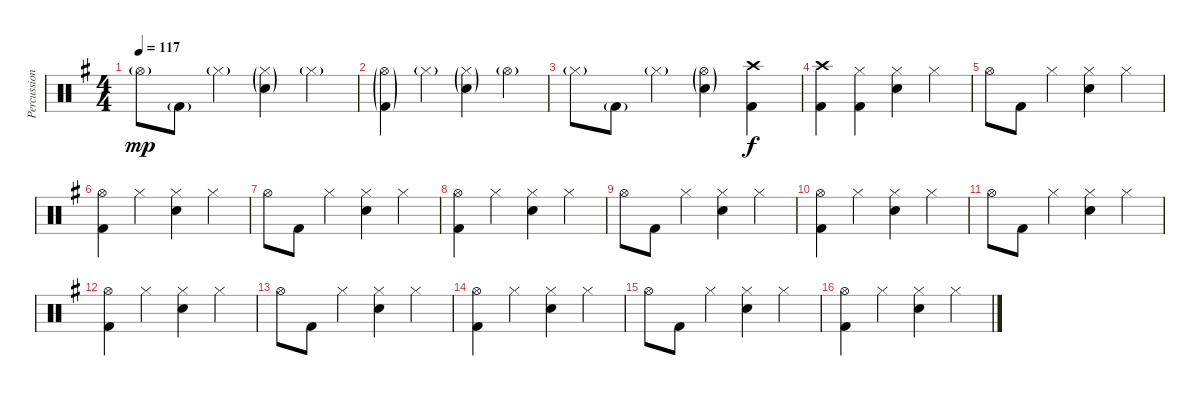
\track ("Percussion" "Percussion") {instrument percussion}
\staff {score}
\articulation defaults
\ts (4 4)
\tempo 117
\clef neutral
\ks g "Hi-Hat (open)"{g}.8{dy mp} "Kick (hit) 2"{g}.8 "Hi-Hat (closed)"{g}.4
("Hi-Hat (closed)"{g} "Electric Snare (hit)"{g}).4 "Hi-Hat (closed)"{g}.4 |
("Hi-Hat (open)"{g} "Kick (hit) 2"{g}).4 "Hi-Hat (closed)"{g}.4 ("Hi-Hat (closed)"{g} "Electric Snare (hit)"{g}).4 "Hi-Hat (open)"{g}.4 |
"Hi-Hat (closed)"{g}.8 "Kick (hit) 2"{g}.8 "Hi-Hat (closed)"{g}.4 ("Hi-Hat (open)"{g} "Electric Snare (hit)"{g}).4 ("Crash high (hit)" "Kick (hit) 2").4{dy f} |
("Crash high (hit)" "Kick (hit) 2").4 ("Hi-Hat (closed)" "Kick (hit) 2").4 ("Hi-Hat (closed)" "Electric Snare (hit)").4 "Hi-Hat (closed)".4 |
"Hi-Hat (open)".8 "Kick (hit) 2".8 "Hi-Hat (closed)".4 ("Hi-Hat (closed)" "Electric Snare (hit)").4 "Hi-Hat (closed)".4 |
("Hi-Hat (open)" "Kick (hit) 2").4 "Hi-Hat (closed)".4 ("Hi-Hat (closed)" "Electric Snare (hit)").4 "Hi-Hat (closed)".4 |
"Hi-Hat (open)".8 "Kick (hit) 2".8 "Hi-Hat (closed)".4 ("Hi-Hat (closed)" "Electric Snare (hit)").4 "Hi-Hat (closed)".4 |
("Hi-Hat (open)" "Kick (hit) 2").4 "Hi-Hat (closed)".4 ("Hi-Hat (closed)" "Electric Snare (hit)").4 "Hi-Hat (closed)".4 |
"Hi-Hat (open)".8 "Kick (hit) 2".8 "Hi-Hat (closed)".4 ("Hi-Hat (closed)" "Electric Snare (hit)").4 "Hi-Hat (closed)".4 |
("Hi-Hat (open)" "Kick (hit) 2").4 "Hi-Hat (closed)".4 ("Hi-Hat (closed)" "Electric Snare (hit)").4 "Hi-Hat (closed)".4 |
"Hi-Hat (open)".8 "Kick (hit) 2".8 "Hi-Hat (closed)".4 ("Hi-Hat (closed)" "Electric Snare (hit)").4 "Hi-Hat (closed)".4 |
("Hi-Hat (open)" "Kick (hit) 2").4 "Hi-Hat (closed)".4 ("Hi-Hat (closed)" "Electric Snare (hit)").4 "Hi-Hat (closed)".4 |
"Hi-Hat (open)".8 "Kick (hit) 2".8 "Hi-Hat (closed)".4 ("Hi-Hat (closed)" "Electric Snare (hit)").4 "Hi-Hat (closed)".4 |
("Hi-Hat (open)" "Kick (hit) 2").4 "Hi-Hat (closed)".4 ("Hi-Hat (closed)" "Electric Snare (hit)").4 "Hi-Hat (closed)".4 |
"Hi-Hat (open)".8 "Kick (hit) 2".8 "Hi-Hat (closed)".4 ("Hi-Hat (closed)" "Electric Snare (hit)").4 "Hi-Hat (closed)".4 |
("Hi-Hat (open)" "Kick (hit) 2").4 "Hi-Hat (closed)".4 ("Hi-Hat (closed)" "Electric Snare (hit)").4 "Hi-Hat (closed)".4
